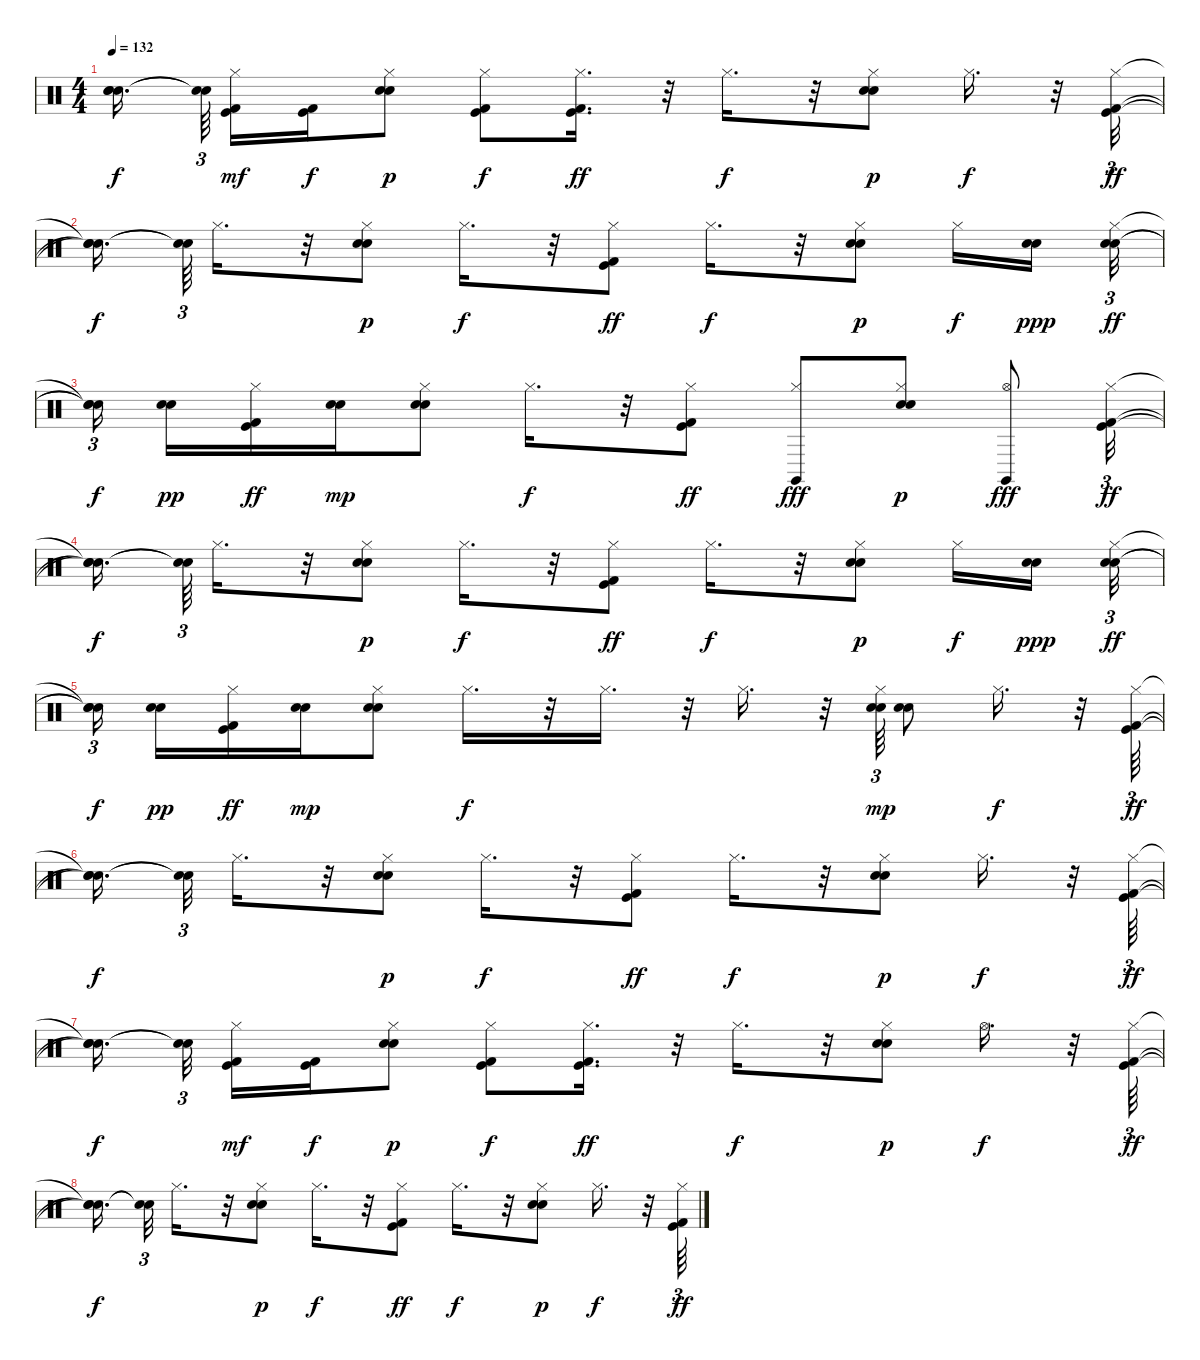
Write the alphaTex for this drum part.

\track "" {instrument percussion}
\staff {score}
\articulation defaults
\ts (4 4)
\tempo 132
\clef neutral
\ks c
("Snare (hit)"{t} "Snare (hit)"{t} "Snare (hit)"{t}).16{d dy f beam splitsecondary} ("Snare (hit)"{t} "Snare (hit)"{t}).64{tu (3 2) beam splitsecondary} ("Kick (hit) 2" "Kick (hit)" "Hi-Hat (closed)").16{dy mf} ("Kick (hit)" "Kick (hit) 2").16{dy f} ("Electric Snare (hit)" "Snare (hit) 2" "Hi-Hat (closed)").8{dy p} ("Kick (hit)" "Kick (hit) 2" "Hi-Hat (closed)").8{dy f} ("Kick (hit) 2" "Kick (hit)" "Hi-Hat (closed)").16{d dy ff} r.32 "Hi-Hat (closed)".16{d dy f} r.32 ("Electric Snare (hit)" "Snare (hit) 2" "Hi-Hat (closed)").8{dy p} "Hi-Hat (closed)".16{d dy f} r.32 ("Kick (hit) 2" "Kick (hit)" "Hi-Hat (closed)").32{tu (3 2) dy ff} |
("Snare (hit)"{t} "Snare (hit)"{t} "Snare (hit)"{t}).16{d dy f beam splitsecondary} ("Snare (hit)"{t} "Snare (hit)"{t}).64{tu (3 2)} "Hi-Hat (closed)".16{d} r.32 ("Electric Snare (hit)" "Snare (hit) 2" "Hi-Hat (closed)").8{dy p} "Hi-Hat (closed)".16{d dy f} r.32 ("Kick (hit) 2" "Kick (hit)" "Hi-Hat (closed)").8{dy ff} "Hi-Hat (closed)".16{d dy f} r.32 ("Electric Snare (hit)" "Snare (hit) 2" "Hi-Hat (closed)").8{dy p} "Hi-Hat (closed)".16{dy f} ("Electric Snare (hit)" "Snare (hit) 2").16{dy ppp beam splitsecondary} ("Snare (hit) 2" "Electric Snare (hit)" "Hi-Hat (closed)").32{tu (3 2) dy ff} |
("Snare (hit)"{t} "Snare (hit)"{t} "Snare (hit)"{t}).16{tu (3 2) dy f beam splitsecondary} ("Electric Snare (hit)" "Snare (hit) 2").16{dy pp} ("Kick (hit) 2" "Kick (hit)" "Hi-Hat (closed)").16{dy ff} ("Snare (hit) 2" "Electric Snare (hit)").16{dy mp} ("Electric Snare (hit)" "Snare (hit) 2" "Hi-Hat (closed)").8 "Hi-Hat (closed)".16{d dy f} r.32 ("Kick (hit) 2" "Kick (hit)" "Hi-Hat (closed)").8{dy ff} ("Hi-Hat (closed)" "Claves (hit)").8{dy fff} ("Electric Snare (hit)" "Snare (hit) 2" "Hi-Hat (closed)").8{dy p} ("Hi-Hat (open)" "Claves (hit)").8{dy fff} ("Kick (hit) 2" "Kick (hit)" "Hi-Hat (closed)").32{tu (3 2) dy ff} |
("Snare (hit)"{t} "Snare (hit)"{t} "Snare (hit)"{t}).16{d dy f beam splitsecondary} ("Snare (hit)"{t} "Snare (hit)"{t}).64{tu (3 2)} "Hi-Hat (closed)".16{d} r.32 ("Electric Snare (hit)" "Snare (hit) 2" "Hi-Hat (closed)").8{dy p} "Hi-Hat (closed)".16{d dy f} r.32 ("Kick (hit) 2" "Kick (hit)" "Hi-Hat (closed)").8{dy ff} "Hi-Hat (closed)".16{d dy f} r.32 ("Electric Snare (hit)" "Snare (hit) 2" "Hi-Hat (closed)").8{dy p} "Hi-Hat (closed)".16{dy f} ("Electric Snare (hit)" "Snare (hit) 2").16{dy ppp beam splitsecondary} ("Snare (hit) 2" "Electric Snare (hit)" "Hi-Hat (closed)").32{tu (3 2) dy ff} |
("Snare (hit)"{t} "Snare (hit)"{t} "Snare (hit)"{t}).16{tu (3 2) dy f beam splitsecondary} ("Electric Snare (hit)" "Snare (hit) 2").16{dy pp} ("Kick (hit) 2" "Kick (hit)" "Hi-Hat (closed)").16{dy ff} ("Snare (hit) 2" "Electric Snare (hit)").16{dy mp} ("Electric Snare (hit)" "Snare (hit) 2" "Hi-Hat (closed)").8 "Hi-Hat (closed)".16{d dy f} r.32 "Hi-Hat (closed)".16{d} r.32 "Hi-Hat (closed)".16{d} r.32 ("Electric Snare (hit)" "Snare (hit) 2" "Hi-Hat (closed)").64{tu (3 2) dy mp} ("Electric Snare (hit)" "Snare (hit) 2").8 "Hi-Hat (closed)".16{d dy f} r.32 ("Kick (hit) 2" "Kick (hit)" "Hi-Hat (closed)").64{tu (3 2) dy ff} |
("Snare (hit)"{t} "Snare (hit)"{t} "Snare (hit)"{t}).16{d dy f beam splitsecondary} ("Snare (hit)"{t} "Snare (hit)"{t}).32{tu (3 2)} "Hi-Hat (closed)".16{d} r.32 ("Electric Snare (hit)" "Snare (hit) 2" "Hi-Hat (closed)").8{dy p} "Hi-Hat (closed)".16{d dy f} r.32 ("Kick (hit) 2" "Kick (hit)" "Hi-Hat (closed)").8{dy ff} "Hi-Hat (closed)".16{d dy f} r.32 ("Electric Snare (hit)" "Snare (hit) 2" "Hi-Hat (closed)").8{dy p} "Hi-Hat (closed)".16{d dy f} r.32 ("Kick (hit) 2" "Kick (hit)" "Hi-Hat (closed)").64{tu (3 2) dy ff} |
("Snare (hit)"{t} "Snare (hit)"{t} "Snare (hit)"{t}).16{d dy f beam splitsecondary} ("Snare (hit)"{t} "Snare (hit)"{t}).32{tu (3 2) beam splitsecondary} ("Kick (hit) 2" "Kick (hit)" "Hi-Hat (closed)").16{dy mf} ("Kick (hit)" "Kick (hit) 2").16{dy f} ("Electric Snare (hit)" "Snare (hit) 2" "Hi-Hat (closed)").8{dy p} ("Kick (hit)" "Kick (hit) 2" "Hi-Hat (closed)").8{dy f} ("Kick (hit) 2" "Kick (hit)" "Hi-Hat (closed)").16{d dy ff} r.32 "Hi-Hat (closed)".16{d dy f} r.32 ("Electric Snare (hit)" "Snare (hit) 2" "Hi-Hat (closed)").8{dy p} "Hi-Hat (open)".16{d dy f} r.32 ("Kick (hit) 2" "Kick (hit)" "Hi-Hat (closed)").64{tu (3 2) dy ff} |
("Snare (hit)"{t} "Snare (hit)"{t} "Snare (hit)"{t}).16{d dy f beam splitsecondary} ("Snare (hit)"{t} "Snare (hit)"{t}).32{tu (3 2)} "Hi-Hat (closed)".16{d} r.32 ("Electric Snare (hit)" "Snare (hit) 2" "Hi-Hat (closed)").8{dy p} "Hi-Hat (closed)".16{d dy f} r.32 ("Kick (hit) 2" "Kick (hit)" "Hi-Hat (closed)").8{dy ff} "Hi-Hat (closed)".16{d dy f} r.32 ("Electric Snare (hit)" "Snare (hit) 2" "Hi-Hat (closed)").8{dy p} "Hi-Hat (closed)".16{d dy f} r.32 ("Kick (hit) 2" "Kick (hit)" "Hi-Hat (closed)").64{tu (3 2) dy ff}
